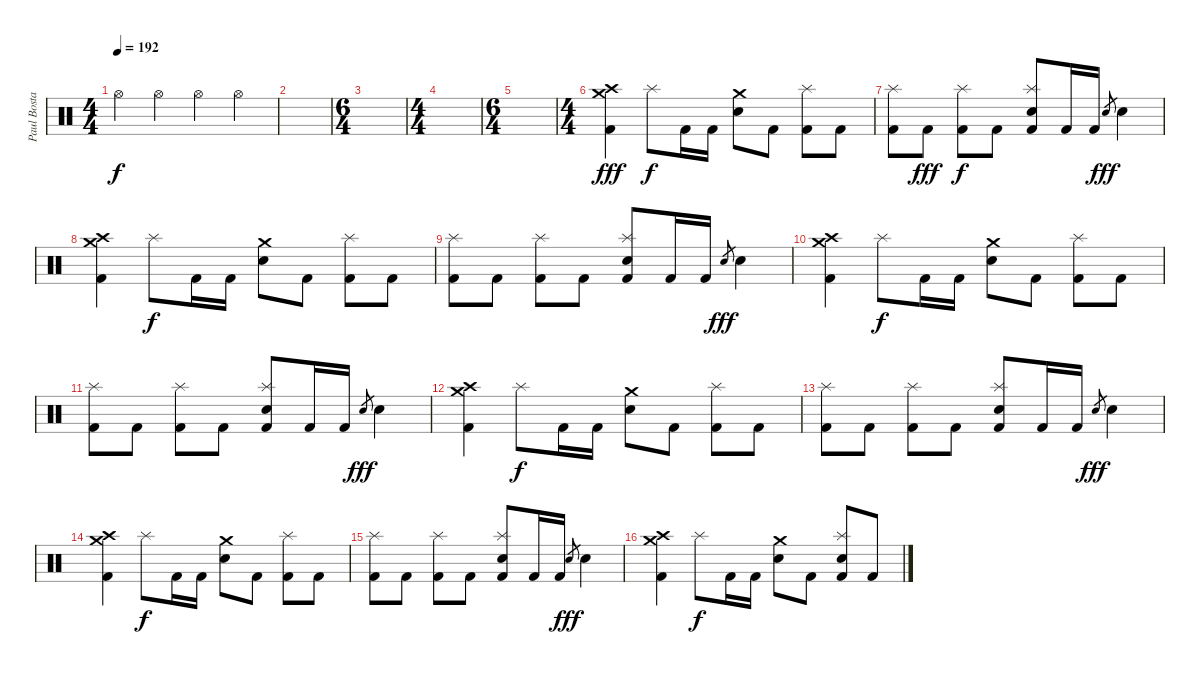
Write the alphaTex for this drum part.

\track ("Paul Bostaph" "Paul Bosta") {instrument percussion}
\staff {score}
\articulation defaults
\ts (4 4)
\tempo 192
\clef neutral
\ks c "Hi-Hat (open)".4{dy f} "Hi-Hat (open)".4 "Hi-Hat (open)".4 "Hi-Hat (open)".4
|
|
\ts (6 4)
|
\ts (4 4)
|
\ts (6 4)
|
\ts (4 4)
("Crash high (hit)" "Crash medium (hit)" "Kick (hit) 2").4{dy fff} "Splash (hit)".8{dy f} "Kick (hit) 2".16 "Kick (hit) 2".16 ("Crash medium (hit)" "Electric Snare (hit)").8 "Kick (hit) 2".8 ("Splash (hit)" "Kick (hit) 2").8 "Kick (hit) 2".8 |
("Splash (hit)" "Kick (hit) 2").8 "Kick (hit) 2".8{dy fff} ("Splash (hit)" "Kick (hit) 2").8{dy f} "Kick (hit) 2".8 ("Splash (hit)" "Electric Snare (hit)" "Kick (hit) 2").8 "Kick (hit) 2".16 "Kick (hit) 2".16 "Electric Snare (hit)".8{gr dy fff} "Electric Snare (hit)".4 |
("Crash high (hit)" "Crash medium (hit)" "Kick (hit) 2").4 "Splash (hit)".8{dy f} "Kick (hit) 2".16 "Kick (hit) 2".16 ("Crash medium (hit)" "Electric Snare (hit)").8 "Kick (hit) 2".8 ("Splash (hit)" "Kick (hit) 2").8 "Kick (hit) 2".8 |
("Splash (hit)" "Kick (hit) 2").8 "Kick (hit) 2".8 ("Splash (hit)" "Kick (hit) 2").8 "Kick (hit) 2".8 ("Splash (hit)" "Electric Snare (hit)" "Kick (hit) 2").8 "Kick (hit) 2".16 "Kick (hit) 2".16 "Electric Snare (hit)".8{gr dy fff} "Electric Snare (hit)".4 |
("Crash high (hit)" "Crash medium (hit)" "Kick (hit) 2").4 "Splash (hit)".8{dy f} "Kick (hit) 2".16 "Kick (hit) 2".16 ("Crash medium (hit)" "Electric Snare (hit)").8 "Kick (hit) 2".8 ("Splash (hit)" "Kick (hit) 2").8 "Kick (hit) 2".8 |
("Splash (hit)" "Kick (hit) 2").8 "Kick (hit) 2".8 ("Splash (hit)" "Kick (hit) 2").8 "Kick (hit) 2".8 ("Splash (hit)" "Electric Snare (hit)" "Kick (hit) 2").8 "Kick (hit) 2".16 "Kick (hit) 2".16 "Electric Snare (hit)".8{gr dy fff} "Electric Snare (hit)".4 |
("Crash high (hit)" "Crash medium (hit)" "Kick (hit) 2").4 "Splash (hit)".8{dy f} "Kick (hit) 2".16 "Kick (hit) 2".16 ("Crash medium (hit)" "Electric Snare (hit)").8 "Kick (hit) 2".8 ("Splash (hit)" "Kick (hit) 2").8 "Kick (hit) 2".8 |
("Splash (hit)" "Kick (hit) 2").8 "Kick (hit) 2".8 ("Splash (hit)" "Kick (hit) 2").8 "Kick (hit) 2".8 ("Splash (hit)" "Electric Snare (hit)" "Kick (hit) 2").8 "Kick (hit) 2".16 "Kick (hit) 2".16 "Electric Snare (hit)".8{gr dy fff} "Electric Snare (hit)".4 |
("Crash high (hit)" "Crash medium (hit)" "Kick (hit) 2").4 "Splash (hit)".8{dy f} "Kick (hit) 2".16 "Kick (hit) 2".16 ("Crash medium (hit)" "Electric Snare (hit)").8 "Kick (hit) 2".8 ("Splash (hit)" "Kick (hit) 2").8 "Kick (hit) 2".8 |
("Splash (hit)" "Kick (hit) 2").8 "Kick (hit) 2".8 ("Splash (hit)" "Kick (hit) 2").8 "Kick (hit) 2".8 ("Splash (hit)" "Electric Snare (hit)" "Kick (hit) 2").8 "Kick (hit) 2".16 "Kick (hit) 2".16 "Electric Snare (hit)".8{gr dy fff} "Electric Snare (hit)".4 |
("Crash high (hit)" "Crash medium (hit)" "Kick (hit) 2").4 "Splash (hit)".8{dy f} "Kick (hit) 2".16 "Kick (hit) 2".16 ("Crash medium (hit)" "Electric Snare (hit)").8 "Kick (hit) 2".8 ("Electric Snare (hit)" "Splash (hit)" "Kick (hit) 2").8 "Kick (hit) 2".8
